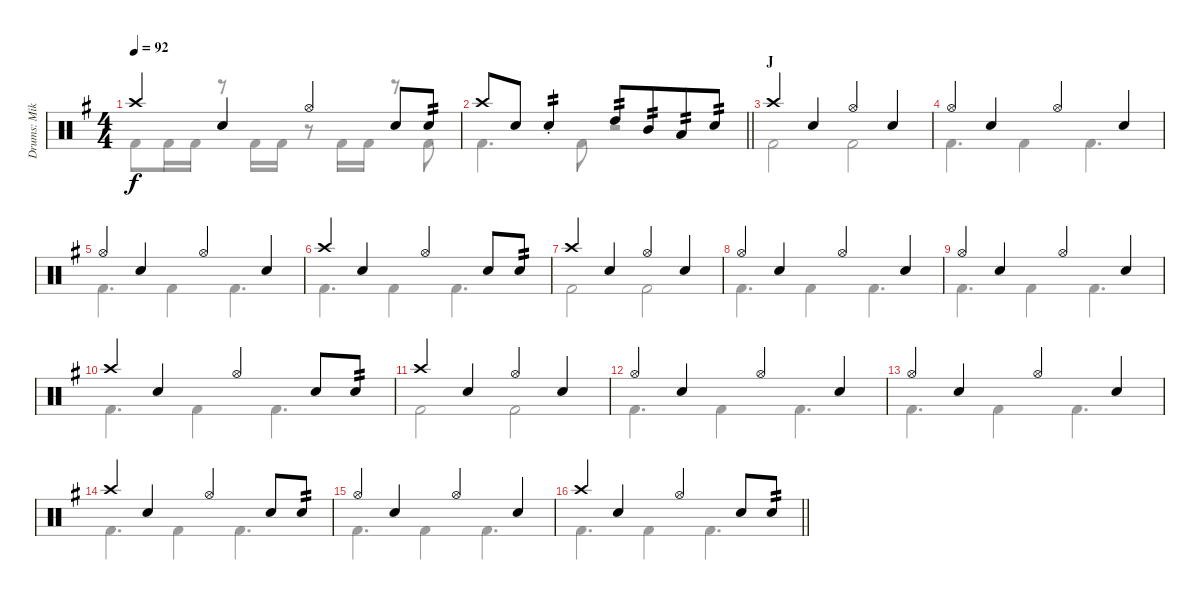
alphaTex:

\track ("Drums: Mike" "Drums: Mik") {instrument percussion}
\staff {score}
\articulation defaults
\voice
\ts (4 4)
\tempo 92
\clef neutral
\ks g "Crash high (hit)".4{dy f} "Snare (hit) 2".4 "Hi-Hat (open)".4{beam merge} "Snare (hit) 2".8 "Electric Snare (hit)".8{tp 2}
|
\barLineRight lightlight "Crash high (hit)".8 "Snare (hit) 2".8 "Electric Snare (hit)"{st}.4{tp 2} "High Tom (hit)".8{tp 2} "Mid Tom (hit)".8{tp 2 beam merge} "Low Tom (hit)".8{tp 2} "Snare (hit) 2".8{tp 2}
|
\section ("" "J")
"Crash high (hit)".4 "Snare (hit) 2".4 "Hi-Hat (open)".4{beam merge} "Snare (hit) 2".4 |
"Hi-Hat (open)".4 "Snare (hit) 2".4 "Hi-Hat (open)".4{beam merge} "Snare (hit) 2".4 |
"Hi-Hat (open)".4 "Snare (hit) 2".4 "Hi-Hat (open)".4{beam merge} "Snare (hit) 2".4 |
"Crash high (hit)".4 "Snare (hit) 2".4 "Hi-Hat (open)".4{beam merge} "Snare (hit) 2".8 "Electric Snare (hit)".8{tp 2} |
"Crash high (hit)".4 "Snare (hit) 2".4 "Hi-Hat (open)".4{beam merge} "Snare (hit) 2".4 |
"Hi-Hat (open)".4 "Snare (hit) 2".4 "Hi-Hat (open)".4{beam merge} "Snare (hit) 2".4 |
"Hi-Hat (open)".4 "Snare (hit) 2".4 "Hi-Hat (open)".4{beam merge} "Snare (hit) 2".4 |
"Crash high (hit)".4 "Snare (hit) 2".4 "Hi-Hat (open)".4{beam merge} "Snare (hit) 2".8 "Electric Snare (hit)".8{tp 2} |
"Crash high (hit)".4 "Snare (hit) 2".4 "Hi-Hat (open)".4{beam merge} "Snare (hit) 2".4 |
"Hi-Hat (open)".4 "Snare (hit) 2".4 "Hi-Hat (open)".4{beam merge} "Snare (hit) 2".4 |
"Hi-Hat (open)".4 "Snare (hit) 2".4 "Hi-Hat (open)".4{beam merge} "Snare (hit) 2".4 |
"Crash high (hit)".4 "Snare (hit) 2".4 "Hi-Hat (open)".4{beam merge} "Snare (hit) 2".8 "Electric Snare (hit)".8{tp 2} |
"Hi-Hat (open)".4 "Snare (hit) 2".4 "Hi-Hat (open)".4{beam merge} "Snare (hit) 2".4 |
\barLineRight lightlight "Crash high (hit)".4 "Snare (hit) 2".4 "Hi-Hat (open)".4{beam merge} "Snare (hit) 2".8 "Electric Snare (hit)".8{tp 2}
\voice
\clef neutral
\ottava regular
\simile none
\ks g "Kick (hit) 2".8{dy f} "Kick (hit) 2".16 "Kick (hit) 2".16
r.8 "Kick (hit) 2".16 "Kick (hit) 2".16 r.8 "Kick (hit) 2".16 "Kick (hit) 2".16 r.8 "Kick (hit) 2".8 |
\barLineRight lightlight "Kick (hit) 2".4{d} "Kick (hit) 2".8
r.2 |
"Kick (hit) 2".2 "Kick (hit) 2".2 |
"Kick (hit) 2".4{d} "Kick (hit) 2".4 "Kick (hit) 2".4{d} |
"Kick (hit) 2".4{d} "Kick (hit) 2".4 "Kick (hit) 2".4{d} |
"Kick (hit) 2".4{d} "Kick (hit) 2".4 "Kick (hit) 2".4{d} |
"Kick (hit) 2".2 "Kick (hit) 2".2 |
"Kick (hit) 2".4{d} "Kick (hit) 2".4 "Kick (hit) 2".4{d} |
"Kick (hit) 2".4{d} "Kick (hit) 2".4 "Kick (hit) 2".4{d} |
"Kick (hit) 2".4{d} "Kick (hit) 2".4 "Kick (hit) 2".4{d} |
"Kick (hit) 2".2 "Kick (hit) 2".2 |
"Kick (hit) 2".4{d} "Kick (hit) 2".4 "Kick (hit) 2".4{d} |
"Kick (hit) 2".4{d} "Kick (hit) 2".4 "Kick (hit) 2".4{d} |
"Kick (hit) 2".4{d} "Kick (hit) 2".4 "Kick (hit) 2".4{d} |
"Kick (hit) 2".4{d} "Kick (hit) 2".4 "Kick (hit) 2".4{d} |
\barLineRight lightlight "Kick (hit) 2".4{d} "Kick (hit) 2".4 "Kick (hit) 2".4{d}
